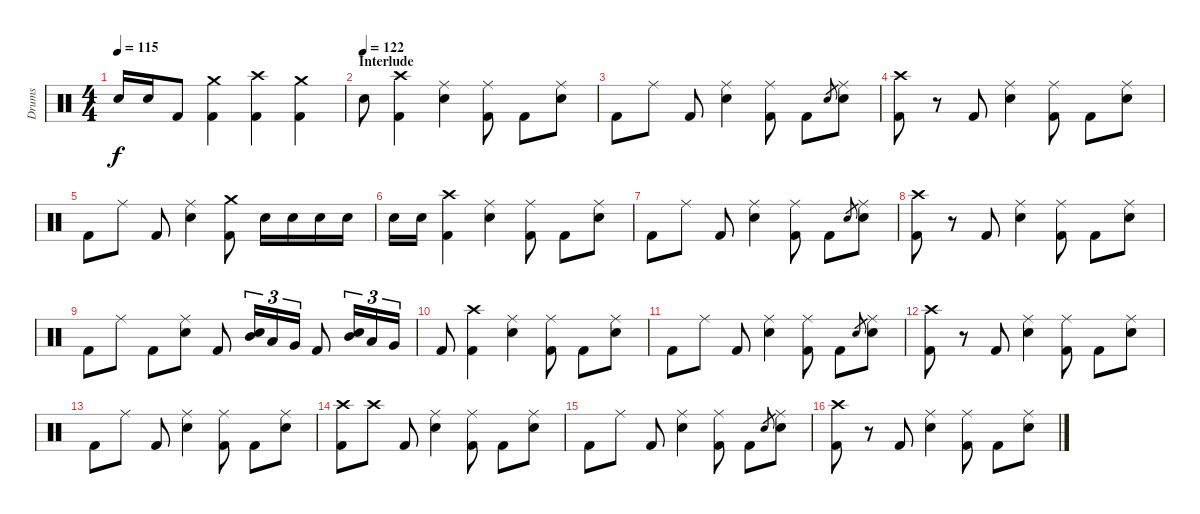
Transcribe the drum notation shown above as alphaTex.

\track ("Drums" "Drums") {instrument percussion}
\staff {score}
\articulation defaults
\ts (4 4)
\tempo 115
\clef neutral
\ks c "Snare (hit) 2".16{dy f} "Snare (hit) 2".16 "Kick (hit) 2".8
("Crash medium (hit)" "Kick (hit) 2").4 ("Crash high (hit)" "Kick (hit) 2").4 ("Crash medium (hit)" "Kick (hit) 2").4 |
\section ("" "Interlude")
\tempo (122)
"Snare (hit) 2".8 ("Crash high (hit)" "Kick (hit) 2").4 ("Ride (middle)" "Snare (hit) 2").4 ("Ride (middle)" "Kick (hit) 2").8 "Kick (hit) 2".8 ("Ride (middle)" "Snare (hit) 2").8 |
"Kick (hit) 2".8 "Ride (middle)".8 "Kick (hit) 2".8 ("Ride (middle)" "Snare (hit) 2").4 ("Ride (middle)" "Kick (hit) 2").8 "Kick (hit) 2".8 "Snare (hit) 2".8{gr} ("Ride (middle)" "Snare (hit) 2").8 |
("Crash high (hit)" "Kick (hit) 2").8 r.8 "Kick (hit) 2".8 ("Ride (middle)" "Snare (hit) 2").4 ("Ride (middle)" "Kick (hit) 2").8 "Kick (hit) 2".8 ("Ride (middle)" "Snare (hit) 2").8 |
"Kick (hit) 2".8 "Ride (middle)".8 "Kick (hit) 2".8 ("Ride (middle)" "Snare (hit) 2").4 ("Crash medium (hit)" "Kick (hit) 2").8 "Snare (hit) 2".16 "Snare (hit) 2".16 "Snare (hit) 2".16 "Snare (hit) 2".16 |
"Snare (hit) 2".16 "Snare (hit) 2".16 ("Crash high (hit)" "Kick (hit) 2").4 ("Ride (middle)" "Snare (hit) 2").4 ("Ride (middle)" "Kick (hit) 2").8 "Kick (hit) 2".8 ("Ride (middle)" "Snare (hit) 2").8 |
"Kick (hit) 2".8 "Ride (middle)".8 "Kick (hit) 2".8 ("Ride (middle)" "Snare (hit) 2").4 ("Ride (middle)" "Kick (hit) 2").8 "Kick (hit) 2".8 "Snare (hit) 2".8{gr} ("Ride (middle)" "Snare (hit) 2").8 |
("Crash high (hit)" "Kick (hit) 2").8 r.8 "Kick (hit) 2".8 ("Ride (middle)" "Snare (hit) 2").4 ("Ride (middle)" "Kick (hit) 2").8 "Kick (hit) 2".8 ("Ride (middle)" "Snare (hit) 2").8 |
"Kick (hit) 2".8 "Ride (middle)".8 "Kick (hit) 2".8 ("Ride (middle)" "Snare (hit) 2").8 "Kick (hit) 2".8 ("Mid Tom (hit)" "Snare (hit) 2").16{tu (3 2)} "Low Tom (hit)".16{tu (3 2)} "Very Low Tom (hit)".16{tu (3 2)} "Kick (hit) 2".8 ("Mid Tom (hit)" "Snare (hit) 2").16{tu (3 2)} "Low Tom (hit)".16{tu (3 2)} "Very Low Tom (hit)".16{tu (3 2)} |
"Kick (hit) 2".8 ("Crash high (hit)" "Kick (hit) 2").4 ("Ride (middle)" "Snare (hit) 2").4 ("Ride (middle)" "Kick (hit) 2").8 "Kick (hit) 2".8 ("Ride (middle)" "Snare (hit) 2").8 |
"Kick (hit) 2".8 "Ride (middle)".8 "Kick (hit) 2".8 ("Ride (middle)" "Snare (hit) 2").4 ("Ride (middle)" "Kick (hit) 2").8 "Kick (hit) 2".8 "Snare (hit) 2".8{gr} ("Ride (middle)" "Snare (hit) 2").8 |
("Crash high (hit)" "Kick (hit) 2").8 r.8 "Kick (hit) 2".8 ("Ride (middle)" "Snare (hit) 2").4 ("Ride (middle)" "Kick (hit) 2").8 "Kick (hit) 2".8 ("Ride (middle)" "Snare (hit) 2").8 |
"Kick (hit) 2".8 "Ride (middle)".8 "Kick (hit) 2".8 ("Ride (middle)" "Snare (hit) 2").4 ("Ride (middle)" "Kick (hit) 2").8 "Kick (hit) 2".8 ("Ride (middle)" "Snare (hit) 2").8 |
("Crash high (hit)" "Kick (hit) 2").8 "Crash high (hit)".8 "Kick (hit) 2".8 ("Ride (middle)" "Snare (hit) 2").4 ("Ride (middle)" "Kick (hit) 2").8 "Kick (hit) 2".8 ("Ride (middle)" "Snare (hit) 2").8 |
"Kick (hit) 2".8 "Ride (middle)".8 "Kick (hit) 2".8 ("Ride (middle)" "Snare (hit) 2").4 ("Ride (middle)" "Kick (hit) 2").8 "Kick (hit) 2".8 "Snare (hit) 2".8{gr} ("Ride (middle)" "Snare (hit) 2").8 |
("Crash high (hit)" "Kick (hit) 2").8 r.8 "Kick (hit) 2".8 ("Ride (middle)" "Snare (hit) 2").4 ("Ride (middle)" "Kick (hit) 2").8 "Kick (hit) 2".8 ("Ride (middle)" "Snare (hit) 2").8
